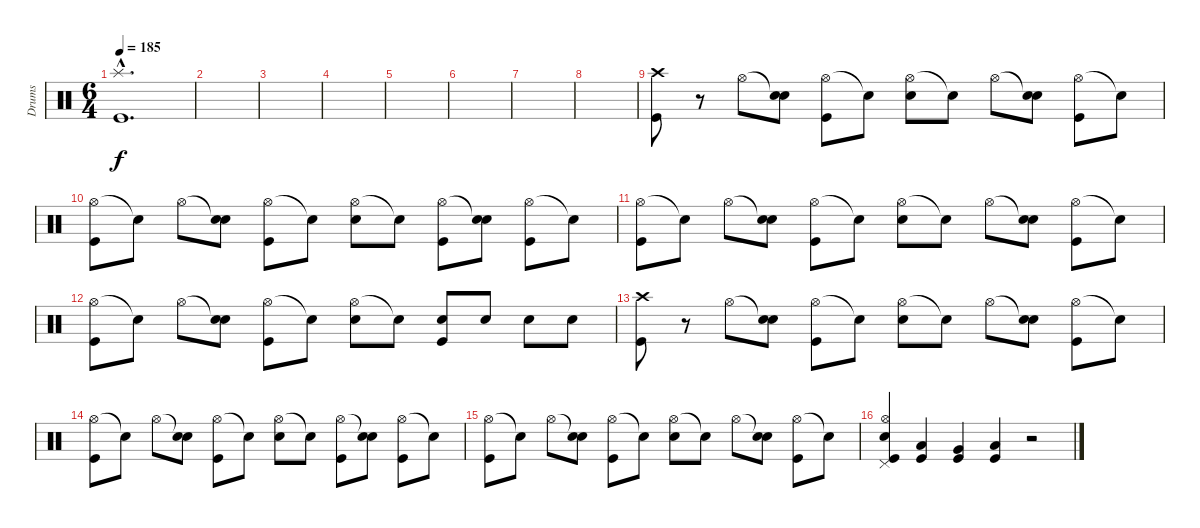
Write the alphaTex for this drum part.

\track ("Drums" "Drums") {instrument percussion}
\staff {score}
\articulation defaults
\ts (6 4)
\tempo 185
\clef neutral
\ks c
("Splash (hit)"{hac} "Kick (hit)"{hac}).1{d dy f} |
|
|
|
|
|
|
|
("Crash high (hit)" "Kick (hit)").8 r.8 "Hi-Hat (open)".8 ("Snare (hit)"{t} "Electric Snare (hit)").8 ("Hi-Hat (open)" "Kick (hit)").8 "Snare (hit)"{t}.8 ("Hi-Hat (open)" "Electric Snare (hit)").8 "Snare (hit)"{t}.8 "Hi-Hat (open)".8 ("Snare (hit)"{t} "Electric Snare (hit)").8 ("Hi-Hat (open)" "Kick (hit)").8 "Snare (hit)"{t}.8 |
("Hi-Hat (open)" "Kick (hit)").8 "Snare (hit)"{t}.8 "Hi-Hat (open)".8 ("Snare (hit)"{t} "Electric Snare (hit)").8 ("Hi-Hat (open)" "Kick (hit)").8 "Snare (hit)"{t}.8 ("Hi-Hat (open)" "Electric Snare (hit)").8 "Snare (hit)"{t}.8 ("Hi-Hat (open)" "Kick (hit)").8 ("Snare (hit)"{t} "Electric Snare (hit)").8 ("Hi-Hat (open)" "Kick (hit)").8 "Snare (hit)"{t}.8 |
("Hi-Hat (open)" "Kick (hit)").8 "Snare (hit)"{t}.8 "Hi-Hat (open)".8 ("Snare (hit)"{t} "Electric Snare (hit)").8 ("Hi-Hat (open)" "Kick (hit)").8 "Snare (hit)"{t}.8 ("Hi-Hat (open)" "Electric Snare (hit)").8 "Snare (hit)"{t}.8 "Hi-Hat (open)".8 ("Snare (hit)"{t} "Electric Snare (hit)").8 ("Hi-Hat (open)" "Kick (hit)").8 "Snare (hit)"{t}.8 |
("Hi-Hat (open)" "Kick (hit)").8 "Snare (hit)"{t}.8 "Hi-Hat (open)".8 ("Snare (hit)"{t} "Electric Snare (hit)").8 ("Hi-Hat (open)" "Kick (hit)").8 "Snare (hit)"{t}.8 ("Hi-Hat (open)" "Electric Snare (hit)").8 "Snare (hit)"{t}.8 ("Electric Snare (hit)" "Kick (hit)").8 "Electric Snare (hit)".8 "Electric Snare (hit)".8 "Electric Snare (hit)".8 |
("Crash high (hit)" "Kick (hit)").8 r.8 "Hi-Hat (open)".8 ("Snare (hit)"{t} "Electric Snare (hit)").8 ("Hi-Hat (open)" "Kick (hit)").8 "Snare (hit)"{t}.8 ("Hi-Hat (open)" "Electric Snare (hit)").8 "Snare (hit)"{t}.8 "Hi-Hat (open)".8 ("Snare (hit)"{t} "Electric Snare (hit)").8 ("Hi-Hat (open)" "Kick (hit)").8 "Snare (hit)"{t}.8 |
("Hi-Hat (open)" "Kick (hit)").8 "Snare (hit)"{t}.8 "Hi-Hat (open)".8 ("Snare (hit)"{t} "Electric Snare (hit)").8 ("Hi-Hat (open)" "Kick (hit)").8 "Snare (hit)"{t}.8 ("Hi-Hat (open)" "Electric Snare (hit)").8 "Snare (hit)"{t}.8 ("Hi-Hat (open)" "Kick (hit)").8 ("Snare (hit)"{t} "Electric Snare (hit)").8 ("Hi-Hat (open)" "Kick (hit)").8 "Snare (hit)"{t}.8 |
("Hi-Hat (open)" "Kick (hit)").8 "Snare (hit)"{t}.8 "Hi-Hat (open)".8 ("Snare (hit)"{t} "Electric Snare (hit)").8 ("Hi-Hat (open)" "Kick (hit)").8 "Snare (hit)"{t}.8 ("Hi-Hat (open)" "Electric Snare (hit)").8 "Snare (hit)"{t}.8 "Hi-Hat (open)".8 ("Snare (hit)"{t} "Electric Snare (hit)").8 ("Hi-Hat (open)" "Kick (hit)").8 "Snare (hit)"{t}.8 |
("Hi-Hat (open)" "Pedal Hi-Hat (hit)" "Electric Snare (hit)" "Kick (hit)").4 ("Low Tom (hit)" "Kick (hit)").4 ("Very Low Tom (hit)" "Kick (hit)").4 ("Low Floor Tom (hit)" "Kick (hit)").4 r.2
